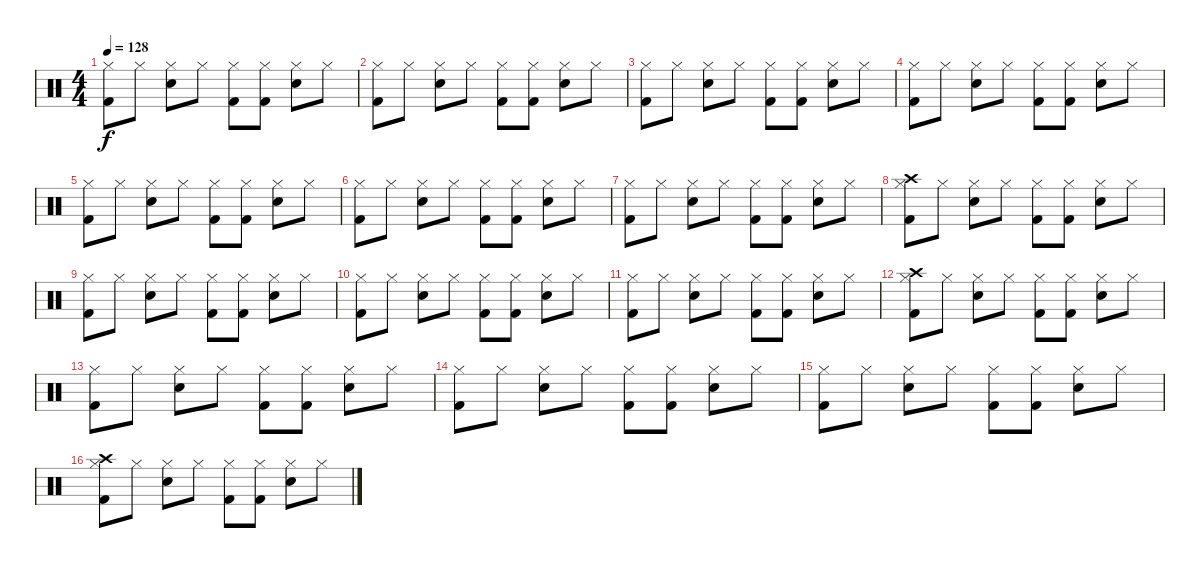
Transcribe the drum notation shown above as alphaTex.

\track "" {instrument percussion}
\staff {score}
\articulation defaults
\ts (4 4)
\tempo 128
\clef neutral
\ks c
("Hi-Hat (closed)" "Kick (hit) 2").8{dy f} "Hi-Hat (closed)".8 ("Hi-Hat (closed)" "Snare (hit) 2").8 "Hi-Hat (closed)".8 ("Hi-Hat (closed)" "Kick (hit) 2").8 ("Hi-Hat (closed)" "Kick (hit) 2").8 ("Hi-Hat (closed)" "Snare (hit) 2").8 "Hi-Hat (closed)".8 |
("Hi-Hat (closed)" "Kick (hit) 2").8 "Hi-Hat (closed)".8 ("Hi-Hat (closed)" "Snare (hit) 2").8 "Hi-Hat (closed)".8 ("Hi-Hat (closed)" "Kick (hit) 2").8 ("Hi-Hat (closed)" "Kick (hit) 2").8 ("Hi-Hat (closed)" "Snare (hit) 2").8 "Hi-Hat (closed)".8 |
("Hi-Hat (closed)" "Kick (hit) 2").8 "Hi-Hat (closed)".8 ("Hi-Hat (closed)" "Snare (hit) 2").8 "Hi-Hat (closed)".8 ("Hi-Hat (closed)" "Kick (hit) 2").8 ("Hi-Hat (closed)" "Kick (hit) 2").8 ("Hi-Hat (closed)" "Snare (hit) 2").8 "Hi-Hat (closed)".8 |
("Hi-Hat (closed)" "Kick (hit) 2").8 "Hi-Hat (closed)".8 ("Hi-Hat (closed)" "Snare (hit) 2").8 "Hi-Hat (closed)".8 ("Hi-Hat (closed)" "Kick (hit) 2").8 ("Hi-Hat (closed)" "Kick (hit) 2").8 ("Hi-Hat (closed)" "Snare (hit) 2").8 "Hi-Hat (closed)".8 |
("Hi-Hat (closed)" "Kick (hit) 2").8 "Hi-Hat (closed)".8 ("Hi-Hat (closed)" "Snare (hit) 2").8 "Hi-Hat (closed)".8 ("Hi-Hat (closed)" "Kick (hit) 2").8 ("Hi-Hat (closed)" "Kick (hit) 2").8 ("Hi-Hat (closed)" "Snare (hit) 2").8 "Hi-Hat (closed)".8 |
("Hi-Hat (closed)" "Kick (hit) 2").8 "Hi-Hat (closed)".8 ("Hi-Hat (closed)" "Snare (hit) 2").8 "Hi-Hat (closed)".8 ("Hi-Hat (closed)" "Kick (hit) 2").8 ("Hi-Hat (closed)" "Kick (hit) 2").8 ("Hi-Hat (closed)" "Snare (hit) 2").8 "Hi-Hat (closed)".8 |
("Hi-Hat (closed)" "Kick (hit) 2").8 "Hi-Hat (closed)".8 ("Hi-Hat (closed)" "Snare (hit) 2").8 "Hi-Hat (closed)".8 ("Hi-Hat (closed)" "Kick (hit) 2").8 ("Hi-Hat (closed)" "Kick (hit) 2").8 ("Hi-Hat (closed)" "Snare (hit) 2").8 "Hi-Hat (closed)".8 |
("Hi-Hat (closed)" "Crash high (hit)" "Kick (hit) 2").8 "Hi-Hat (closed)".8 ("Hi-Hat (closed)" "Snare (hit) 2").8 "Hi-Hat (closed)".8 ("Hi-Hat (closed)" "Kick (hit) 2").8 ("Hi-Hat (closed)" "Kick (hit) 2").8 ("Hi-Hat (closed)" "Snare (hit) 2").8 "Hi-Hat (closed)".8 |
("Hi-Hat (closed)" "Kick (hit) 2").8 "Hi-Hat (closed)".8 ("Hi-Hat (closed)" "Snare (hit) 2").8 "Hi-Hat (closed)".8 ("Hi-Hat (closed)" "Kick (hit) 2").8 ("Hi-Hat (closed)" "Kick (hit) 2").8 ("Hi-Hat (closed)" "Snare (hit) 2").8 "Hi-Hat (closed)".8 |
("Hi-Hat (closed)" "Kick (hit) 2").8 "Hi-Hat (closed)".8 ("Hi-Hat (closed)" "Snare (hit) 2").8 "Hi-Hat (closed)".8 ("Hi-Hat (closed)" "Kick (hit) 2").8 ("Hi-Hat (closed)" "Kick (hit) 2").8 ("Hi-Hat (closed)" "Snare (hit) 2").8 "Hi-Hat (closed)".8 |
("Hi-Hat (closed)" "Kick (hit) 2").8 "Hi-Hat (closed)".8 ("Hi-Hat (closed)" "Snare (hit) 2").8 "Hi-Hat (closed)".8 ("Hi-Hat (closed)" "Kick (hit) 2").8 ("Hi-Hat (closed)" "Kick (hit) 2").8 ("Hi-Hat (closed)" "Snare (hit) 2").8 "Hi-Hat (closed)".8 |
("Hi-Hat (closed)" "Crash high (hit)" "Kick (hit) 2").8 "Hi-Hat (closed)".8 ("Hi-Hat (closed)" "Snare (hit) 2").8 "Hi-Hat (closed)".8 ("Hi-Hat (closed)" "Kick (hit) 2").8 ("Hi-Hat (closed)" "Kick (hit) 2").8 ("Hi-Hat (closed)" "Snare (hit) 2").8 "Hi-Hat (closed)".8 |
("Hi-Hat (closed)" "Kick (hit) 2").8 "Hi-Hat (closed)".8 ("Hi-Hat (closed)" "Snare (hit) 2").8 "Hi-Hat (closed)".8 ("Hi-Hat (closed)" "Kick (hit) 2").8 ("Hi-Hat (closed)" "Kick (hit) 2").8 ("Hi-Hat (closed)" "Snare (hit) 2").8 "Hi-Hat (closed)".8 |
("Hi-Hat (closed)" "Kick (hit) 2").8 "Hi-Hat (closed)".8 ("Hi-Hat (closed)" "Snare (hit) 2").8 "Hi-Hat (closed)".8 ("Hi-Hat (closed)" "Kick (hit) 2").8 ("Hi-Hat (closed)" "Kick (hit) 2").8 ("Hi-Hat (closed)" "Snare (hit) 2").8 "Hi-Hat (closed)".8 |
("Hi-Hat (closed)" "Kick (hit) 2").8 "Hi-Hat (closed)".8 ("Hi-Hat (closed)" "Snare (hit) 2").8 "Hi-Hat (closed)".8 ("Hi-Hat (closed)" "Kick (hit) 2").8 ("Hi-Hat (closed)" "Kick (hit) 2").8 ("Hi-Hat (closed)" "Snare (hit) 2").8 "Hi-Hat (closed)".8 |
("Hi-Hat (closed)" "Crash high (hit)" "Kick (hit) 2").8 "Hi-Hat (closed)".8 ("Hi-Hat (closed)" "Snare (hit) 2").8 "Hi-Hat (closed)".8 ("Hi-Hat (closed)" "Kick (hit) 2").8 ("Hi-Hat (closed)" "Kick (hit) 2").8 ("Hi-Hat (closed)" "Snare (hit) 2").8 "Hi-Hat (closed)".8
